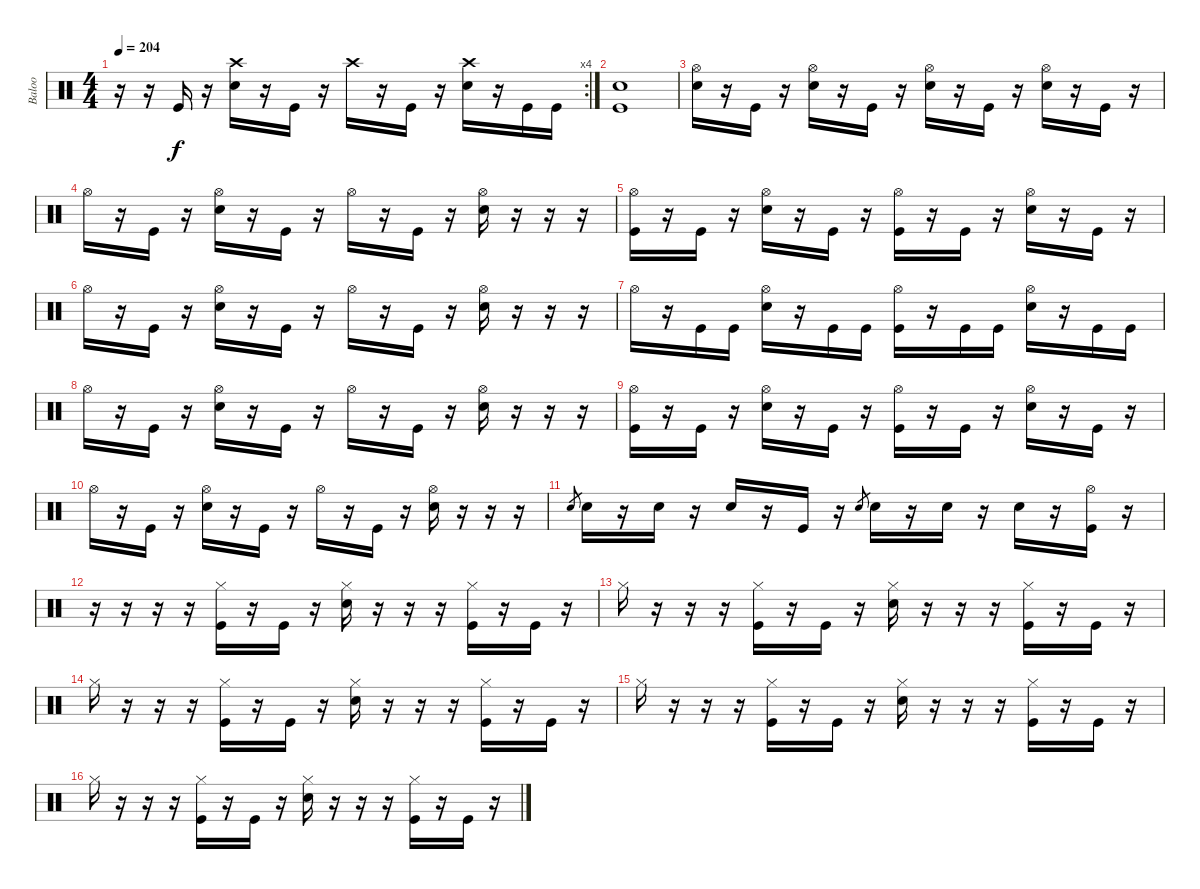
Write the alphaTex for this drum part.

\track ("Baloo" "Baloo") {instrument percussion}
\staff {score}
\articulation defaults
\rc 4
\ts (4 4)
\tempo 204
\clef neutral
\ks c
r.16{dy f} r.16 "Kick (hit)".16 r.16 ("Crash high (hit)" "Electric Snare (hit)").16 r.16 "Kick (hit)".16 r.16 "Crash high (hit)".16 r.16 "Kick (hit)".16 r.16 ("Crash high (hit)" "Electric Snare (hit)").16 r.16 "Kick (hit)".16 "Kick (hit)".16 |
("Electric Snare (hit)" "Kick (hit)").1 |
("Hi-Hat (open)" "Electric Snare (hit)").16 r.16 "Kick (hit)".16 r.16 ("Hi-Hat (open)" "Electric Snare (hit)").16 r.16 "Kick (hit)".16 r.16 ("Hi-Hat (open)" "Electric Snare (hit)").16 r.16 "Kick (hit)".16 r.16 ("Hi-Hat (open)" "Electric Snare (hit)").16 r.16 "Kick (hit)".16 r.16 |
"Hi-Hat (open)".16 r.16 "Kick (hit)".16 r.16 ("Hi-Hat (open)" "Electric Snare (hit)").16 r.16 "Kick (hit)".16 r.16 "Hi-Hat (open)".16 r.16 "Kick (hit)".16 r.16 ("Hi-Hat (open)" "Electric Snare (hit)").16 r.16 r.16 r.16 |
("Hi-Hat (open)" "Kick (hit)").16 r.16 "Kick (hit)".16 r.16 ("Hi-Hat (open)" "Electric Snare (hit)").16 r.16 "Kick (hit)".16 r.16 ("Hi-Hat (open)" "Kick (hit)").16 r.16 "Kick (hit)".16 r.16 ("Hi-Hat (open)" "Electric Snare (hit)").16 r.16 "Kick (hit)".16 r.16 |
"Hi-Hat (open)".16 r.16 "Kick (hit)".16 r.16 ("Hi-Hat (open)" "Electric Snare (hit)").16 r.16 "Kick (hit)".16 r.16 "Hi-Hat (open)".16 r.16 "Kick (hit)".16 r.16 ("Hi-Hat (open)" "Electric Snare (hit)").16 r.16 r.16 r.16 |
"Hi-Hat (open)".16 r.16 "Kick (hit)".16 "Kick (hit)".16 ("Hi-Hat (open)" "Electric Snare (hit)").16 r.16 "Kick (hit)".16 "Kick (hit)".16 ("Hi-Hat (open)" "Kick (hit)").16 r.16 "Kick (hit)".16 "Kick (hit)".16 ("Hi-Hat (open)" "Electric Snare (hit)").16 r.16 "Kick (hit)".16 "Kick (hit)".16 |
"Hi-Hat (open)".16 r.16 "Kick (hit)".16 r.16 ("Hi-Hat (open)" "Electric Snare (hit)").16 r.16 "Kick (hit)".16 r.16 "Hi-Hat (open)".16 r.16 "Kick (hit)".16 r.16 ("Hi-Hat (open)" "Electric Snare (hit)").16 r.16 r.16 r.16 |
("Hi-Hat (open)" "Kick (hit)").16 r.16 "Kick (hit)".16 r.16 ("Hi-Hat (open)" "Electric Snare (hit)").16 r.16 "Kick (hit)".16 r.16 ("Hi-Hat (open)" "Kick (hit)").16 r.16 "Kick (hit)".16 r.16 ("Hi-Hat (open)" "Electric Snare (hit)").16 r.16 "Kick (hit)".16 r.16 |
"Hi-Hat (open)".16 r.16 "Kick (hit)".16 r.16 ("Hi-Hat (open)" "Electric Snare (hit)").16 r.16 "Kick (hit)".16 r.16 "Hi-Hat (open)".16 r.16 "Kick (hit)".16 r.16 ("Hi-Hat (open)" "Electric Snare (hit)").16 r.16 r.16 r.16 |
"Electric Snare (hit)".8{gr} "Electric Snare (hit)".16 r.16 "Electric Snare (hit)".16 r.16 "Electric Snare (hit)".16 r.16 "Kick (hit)".16 r.16 "Electric Snare (hit)".8{gr} "Electric Snare (hit)".16 r.16 "Electric Snare (hit)".16 r.16 "Electric Snare (hit)".16 r.16 ("Hi-Hat (open)" "Kick (hit)").16 r.16 |
r.16 r.16 r.16 r.16 ("Hi-Hat (closed)" "Kick (hit)").16 r.16 "Kick (hit)".16 r.16 ("Hi-Hat (closed)" "Electric Snare (hit)").16 r.16 r.16 r.16 ("Hi-Hat (closed)" "Kick (hit)").16 r.16 "Kick (hit)".16 r.16 |
"Hi-Hat (closed)".16 r.16 r.16 r.16 ("Hi-Hat (closed)" "Kick (hit)").16 r.16 "Kick (hit)".16 r.16 ("Hi-Hat (closed)" "Electric Snare (hit)").16 r.16 r.16 r.16 ("Hi-Hat (closed)" "Kick (hit)").16 r.16 "Kick (hit)".16 r.16 |
"Hi-Hat (closed)".16 r.16 r.16 r.16 ("Hi-Hat (closed)" "Kick (hit)").16 r.16 "Kick (hit)".16 r.16 ("Hi-Hat (closed)" "Electric Snare (hit)").16 r.16 r.16 r.16 ("Hi-Hat (closed)" "Kick (hit)").16 r.16 "Kick (hit)".16 r.16 |
"Hi-Hat (closed)".16 r.16 r.16 r.16 ("Hi-Hat (closed)" "Kick (hit)").16 r.16 "Kick (hit)".16 r.16 ("Hi-Hat (closed)" "Electric Snare (hit)").16 r.16 r.16 r.16 ("Hi-Hat (closed)" "Kick (hit)").16 r.16 "Kick (hit)".16 r.16 |
"Hi-Hat (closed)".16 r.16 r.16 r.16 ("Hi-Hat (closed)" "Kick (hit)").16 r.16 "Kick (hit)".16 r.16 ("Hi-Hat (closed)" "Electric Snare (hit)").16 r.16 r.16 r.16 ("Hi-Hat (closed)" "Kick (hit)").16 r.16 "Kick (hit)".16 r.16
